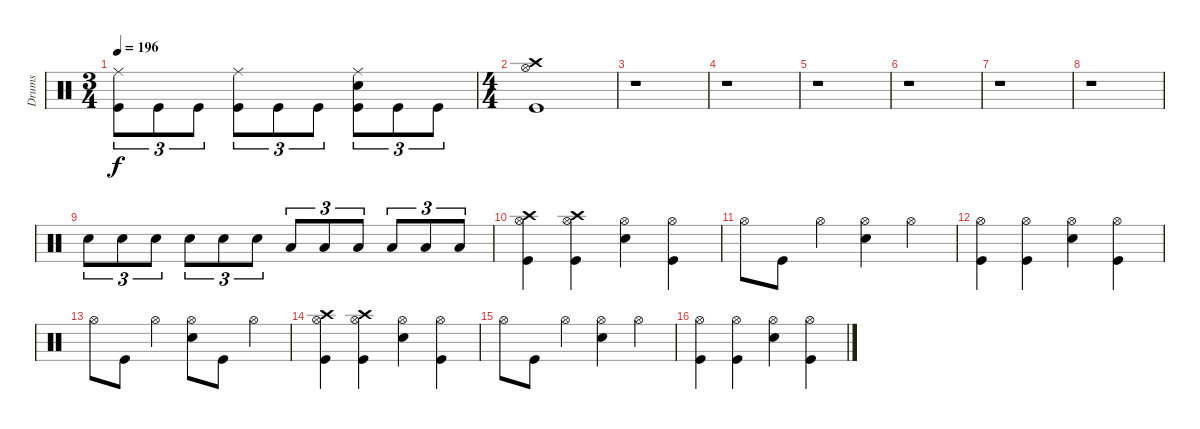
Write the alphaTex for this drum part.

\track ("Drums" "Drums") {instrument percussion}
\staff {score}
\articulation defaults
\ts (3 4)
\tempo 196
\clef neutral
\ks c
("Ride (middle)" "Kick (hit)").8{tu (3 2) dy f} "Kick (hit)".8{tu (3 2)} "Kick (hit)".8{tu (3 2)} ("Ride (middle)" "Kick (hit)").8{tu (3 2)} "Kick (hit)".8{tu (3 2)} "Kick (hit)".8{tu (3 2)} ("Ride (middle)" "Electric Snare (hit)" "Kick (hit)").8{tu (3 2)} "Kick (hit)".8{tu (3 2)} "Kick (hit)".8{tu (3 2)} |
\ts (4 4)
("Crash high (hit)" "Hi-Hat (open)" "Kick (hit)").1 |
r.1 |
r.1 |
r.1 |
r.1 |
r.1 |
r.1 |
"Electric Snare (hit)".8{tu (3 2)} "Electric Snare (hit)".8{tu (3 2)} "Electric Snare (hit)".8{tu (3 2)} "Electric Snare (hit)".8{tu (3 2)} "Electric Snare (hit)".8{tu (3 2)} "Electric Snare (hit)".8{tu (3 2)} "Low Tom (hit)".8{tu (3 2)} "Low Tom (hit)".8{tu (3 2)} "Low Tom (hit)".8{tu (3 2)} "Low Tom (hit)".8{tu (3 2)} "Low Tom (hit)".8{tu (3 2)} "Low Tom (hit)".8{tu (3 2)} |
("Crash high (hit)" "Hi-Hat (open)" "Kick (hit)").4 ("Crash high (hit)" "Hi-Hat (open)" "Kick (hit)").4 ("Hi-Hat (open)" "Electric Snare (hit)").4 ("Hi-Hat (open)" "Kick (hit)").4 |
"Hi-Hat (open)".8 "Kick (hit)".8 "Hi-Hat (open)".4 ("Hi-Hat (open)" "Electric Snare (hit)").4 "Hi-Hat (open)".4 |
("Hi-Hat (open)" "Kick (hit)").4 ("Hi-Hat (open)" "Kick (hit)").4 ("Hi-Hat (open)" "Electric Snare (hit)").4 ("Hi-Hat (open)" "Kick (hit)").4 |
"Hi-Hat (open)".8 "Kick (hit)".8 "Hi-Hat (open)".4 ("Hi-Hat (open)" "Electric Snare (hit)").8 "Kick (hit)".8 "Hi-Hat (open)".4 |
("Crash high (hit)" "Hi-Hat (open)" "Kick (hit)").4 ("Crash high (hit)" "Hi-Hat (open)" "Kick (hit)").4 ("Hi-Hat (open)" "Electric Snare (hit)").4 ("Hi-Hat (open)" "Kick (hit)").4 |
"Hi-Hat (open)".8 "Kick (hit)".8 "Hi-Hat (open)".4 ("Hi-Hat (open)" "Electric Snare (hit)").4 "Hi-Hat (open)".4 |
("Hi-Hat (open)" "Kick (hit)").4 ("Hi-Hat (open)" "Kick (hit)").4 ("Hi-Hat (open)" "Electric Snare (hit)").4 ("Hi-Hat (open)" "Kick (hit)").4
